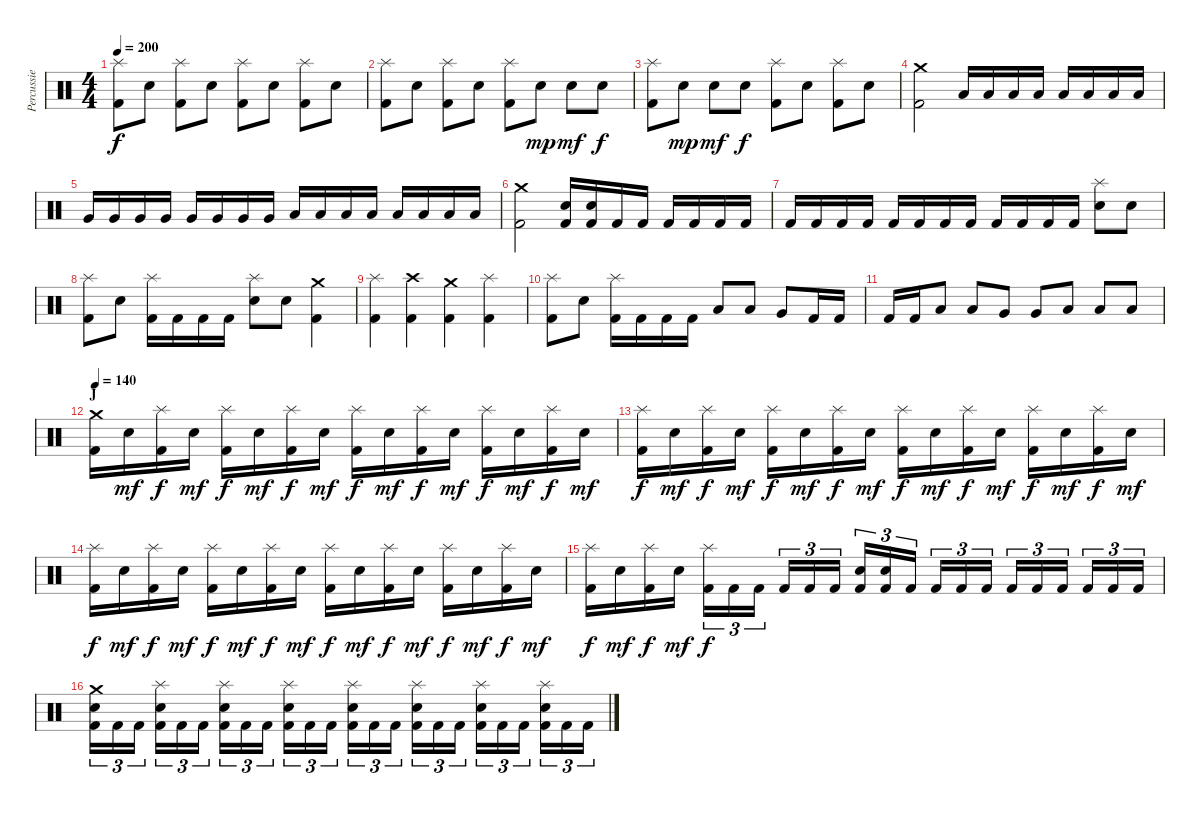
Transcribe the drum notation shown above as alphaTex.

\track ("Percussie" "Percussie") {instrument percussion}
\staff {score}
\articulation defaults
\ts (4 4)
\tempo 200
\clef neutral
\ks c
("Splash (hit)" "Kick (hit) 2").8{dy f} "Electric Snare (hit)".8 ("Splash (hit)" "Kick (hit) 2").8 "Electric Snare (hit)".8 ("Splash (hit)" "Kick (hit) 2").8 "Electric Snare (hit)".8 ("Splash (hit)" "Kick (hit) 2").8 "Electric Snare (hit)".8 |
("Splash (hit)" "Kick (hit) 2").8 "Electric Snare (hit)".8 ("Splash (hit)" "Kick (hit) 2").8 "Electric Snare (hit)".8 ("Splash (hit)" "Kick (hit) 2").8 "Electric Snare (hit)".8{dy mp} "Electric Snare (hit)".8{dy mf} "Electric Snare (hit)".8{dy f} |
("Splash (hit)" "Kick (hit) 2").8 "Electric Snare (hit)".8{dy mp} "Electric Snare (hit)".8{dy mf} "Electric Snare (hit)".8{dy f} ("Splash (hit)" "Kick (hit) 2").8 "Electric Snare (hit)".8 ("Splash (hit)" "Kick (hit) 2").8 "Electric Snare (hit)".8 |
("Crash medium (hit)" "Kick (hit) 2").2 "Low Tom (hit)".16 "Low Tom (hit)".16 "Low Tom (hit)".16 "Low Tom (hit)".16 "Low Tom (hit)".16 "Low Tom (hit)".16 "Low Tom (hit)".16 "Low Tom (hit)".16 |
"Very Low Tom (hit)".16 "Very Low Tom (hit)".16 "Very Low Tom (hit)".16 "Very Low Tom (hit)".16 "Very Low Tom (hit)".16 "Very Low Tom (hit)".16 "Very Low Tom (hit)".16 "Very Low Tom (hit)".16 "Low Floor Tom (hit)".16 "Low Floor Tom (hit)".16 "Low Floor Tom (hit)".16 "Low Floor Tom (hit)".16 "Low Floor Tom (hit)".16 "Low Floor Tom (hit)".16 "Low Floor Tom (hit)".16 "Low Floor Tom (hit)".16 |
("Crash medium (hit)" "Kick (hit) 2").2 ("Electric Snare (hit)" "Kick (hit) 2").16 ("Electric Snare (hit)" "Kick (hit) 2").16 "Kick (hit) 2".16 "Kick (hit) 2".16 "Kick (hit) 2".16 "Kick (hit) 2".16 "Kick (hit) 2".16 "Kick (hit) 2".16 |
"Kick (hit) 2".16 "Kick (hit) 2".16 "Kick (hit) 2".16 "Kick (hit) 2".16 "Kick (hit) 2".16 "Kick (hit) 2".16 "Kick (hit) 2".16 "Kick (hit) 2".16 "Kick (hit) 2".16 "Kick (hit) 2".16 "Kick (hit) 2".16 "Kick (hit) 2".16 ("Splash (hit)" "Electric Snare (hit)").8 "Electric Snare (hit)".8 |
("Splash (hit)" "Kick (hit) 2").8 "Electric Snare (hit)".8 ("Splash (hit)" "Kick (hit) 2").16 "Kick (hit) 2".16 "Kick (hit) 2".16 "Kick (hit) 2".16 ("Splash (hit)" "Electric Snare (hit)").8 "Electric Snare (hit)".8 ("Crash medium (hit)" "Kick (hit) 2").4 |
("Splash (hit)" "Kick (hit) 2").4 ("Crash high (hit)" "Kick (hit) 2").4 ("Crash medium (hit)" "Kick (hit) 2").4 ("Splash (hit)" "Kick (hit) 2").4 |
("Splash (hit)" "Kick (hit) 2").8 "Electric Snare (hit)".8 ("Splash (hit)" "Kick (hit) 2").16 "Kick (hit) 2".16 "Kick (hit) 2".16 "Kick (hit) 2".16 "Low Tom (hit)".8 "Low Tom (hit)".8 "Very Low Tom (hit)".8 "Kick (hit) 2".16 "Kick (hit) 2".16 |
"Kick (hit) 2".16 "Kick (hit) 2".16 "Low Tom (hit)".8 "Low Tom (hit)".8 "Very Low Tom (hit)".8 "Very Low Tom (hit)".8 "Low Floor Tom (hit)".8 "Low Floor Tom (hit)".8 "Low Floor Tom (hit)".8 |
\section ("" "J")
\tempo 140
("Crash medium (hit)" "Kick (hit) 2").16 "Electric Snare (hit)".16{dy mf} ("Splash (hit)" "Kick (hit) 2").16{dy f} "Electric Snare (hit)".16{dy mf} ("Splash (hit)" "Kick (hit) 2").16{dy f} "Electric Snare (hit)".16{dy mf} ("Splash (hit)" "Kick (hit) 2").16{dy f} "Electric Snare (hit)".16{dy mf} ("Splash (hit)" "Kick (hit) 2").16{dy f} "Electric Snare (hit)".16{dy mf} ("Splash (hit)" "Kick (hit) 2").16{dy f} "Electric Snare (hit)".16{dy mf} ("Splash (hit)" "Kick (hit) 2").16{dy f} "Electric Snare (hit)".16{dy mf} ("Splash (hit)" "Kick (hit) 2").16{dy f} "Electric Snare (hit)".16{dy mf} |
("Splash (hit)" "Kick (hit) 2").16{dy f} "Electric Snare (hit)".16{dy mf} ("Splash (hit)" "Kick (hit) 2").16{dy f} "Electric Snare (hit)".16{dy mf} ("Splash (hit)" "Kick (hit) 2").16{dy f} "Electric Snare (hit)".16{dy mf} ("Splash (hit)" "Kick (hit) 2").16{dy f} "Electric Snare (hit)".16{dy mf} ("Splash (hit)" "Kick (hit) 2").16{dy f} "Electric Snare (hit)".16{dy mf} ("Splash (hit)" "Kick (hit) 2").16{dy f} "Electric Snare (hit)".16{dy mf} ("Splash (hit)" "Kick (hit) 2").16{dy f} "Electric Snare (hit)".16{dy mf} ("Splash (hit)" "Kick (hit) 2").16{dy f} "Electric Snare (hit)".16{dy mf} |
("Splash (hit)" "Kick (hit) 2").16{dy f} "Electric Snare (hit)".16{dy mf} ("Splash (hit)" "Kick (hit) 2").16{dy f} "Electric Snare (hit)".16{dy mf} ("Splash (hit)" "Kick (hit) 2").16{dy f} "Electric Snare (hit)".16{dy mf} ("Splash (hit)" "Kick (hit) 2").16{dy f} "Electric Snare (hit)".16{dy mf} ("Splash (hit)" "Kick (hit) 2").16{dy f} "Electric Snare (hit)".16{dy mf} ("Splash (hit)" "Kick (hit) 2").16{dy f} "Electric Snare (hit)".16{dy mf} ("Splash (hit)" "Kick (hit) 2").16{dy f} "Electric Snare (hit)".16{dy mf} ("Splash (hit)" "Kick (hit) 2").16{dy f} "Electric Snare (hit)".16{dy mf} |
("Splash (hit)" "Kick (hit) 2").16{dy f} "Electric Snare (hit)".16{dy mf} ("Splash (hit)" "Kick (hit) 2").16{dy f} "Electric Snare (hit)".16{dy mf} ("Splash (hit)" "Kick (hit) 2").16{tu (3 2) dy f} "Kick (hit) 2".16{tu (3 2)} "Kick (hit) 2".16{tu (3 2)} "Kick (hit) 2".16{tu (3 2)} "Kick (hit) 2".16{tu (3 2)} "Kick (hit) 2".16{tu (3 2)} ("Electric Snare (hit)" "Kick (hit) 2").16{tu (3 2)} ("Electric Snare (hit)" "Kick (hit) 2").16{tu (3 2)} "Kick (hit) 2".16{tu (3 2)} "Kick (hit) 2".16{tu (3 2)} "Kick (hit) 2".16{tu (3 2)} "Kick (hit) 2".16{tu (3 2)} "Kick (hit) 2".16{tu (3 2)} "Kick (hit) 2".16{tu (3 2)} "Kick (hit) 2".16{tu (3 2)} "Kick (hit) 2".16{tu (3 2)} "Kick (hit) 2".16{tu (3 2)} "Kick (hit) 2".16{tu (3 2)} |
("Crash medium (hit)" "Electric Snare (hit)" "Kick (hit) 2").16{tu (3 2)} "Kick (hit) 2".16{tu (3 2)} "Kick (hit) 2".16{tu (3 2)} ("Splash (hit)" "Electric Snare (hit)" "Kick (hit) 2").16{tu (3 2)} "Kick (hit) 2".16{tu (3 2)} "Kick (hit) 2".16{tu (3 2)} ("Splash (hit)" "Electric Snare (hit)" "Kick (hit) 2").16{tu (3 2)} "Kick (hit) 2".16{tu (3 2)} "Kick (hit) 2".16{tu (3 2)} ("Splash (hit)" "Electric Snare (hit)" "Kick (hit) 2").16{tu (3 2)} "Kick (hit) 2".16{tu (3 2)} "Kick (hit) 2".16{tu (3 2)} ("Splash (hit)" "Electric Snare (hit)" "Kick (hit) 2").16{tu (3 2)} "Kick (hit) 2".16{tu (3 2)} "Kick (hit) 2".16{tu (3 2)} ("Splash (hit)" "Electric Snare (hit)" "Kick (hit) 2").16{tu (3 2)} "Kick (hit) 2".16{tu (3 2)} "Kick (hit) 2".16{tu (3 2)} ("Splash (hit)" "Electric Snare (hit)" "Kick (hit) 2").16{tu (3 2)} "Kick (hit) 2".16{tu (3 2)} "Kick (hit) 2".16{tu (3 2)} ("Splash (hit)" "Electric Snare (hit)" "Kick (hit) 2").16{tu (3 2)} "Kick (hit) 2".16{tu (3 2)} "Kick (hit) 2".16{tu (3 2)}
